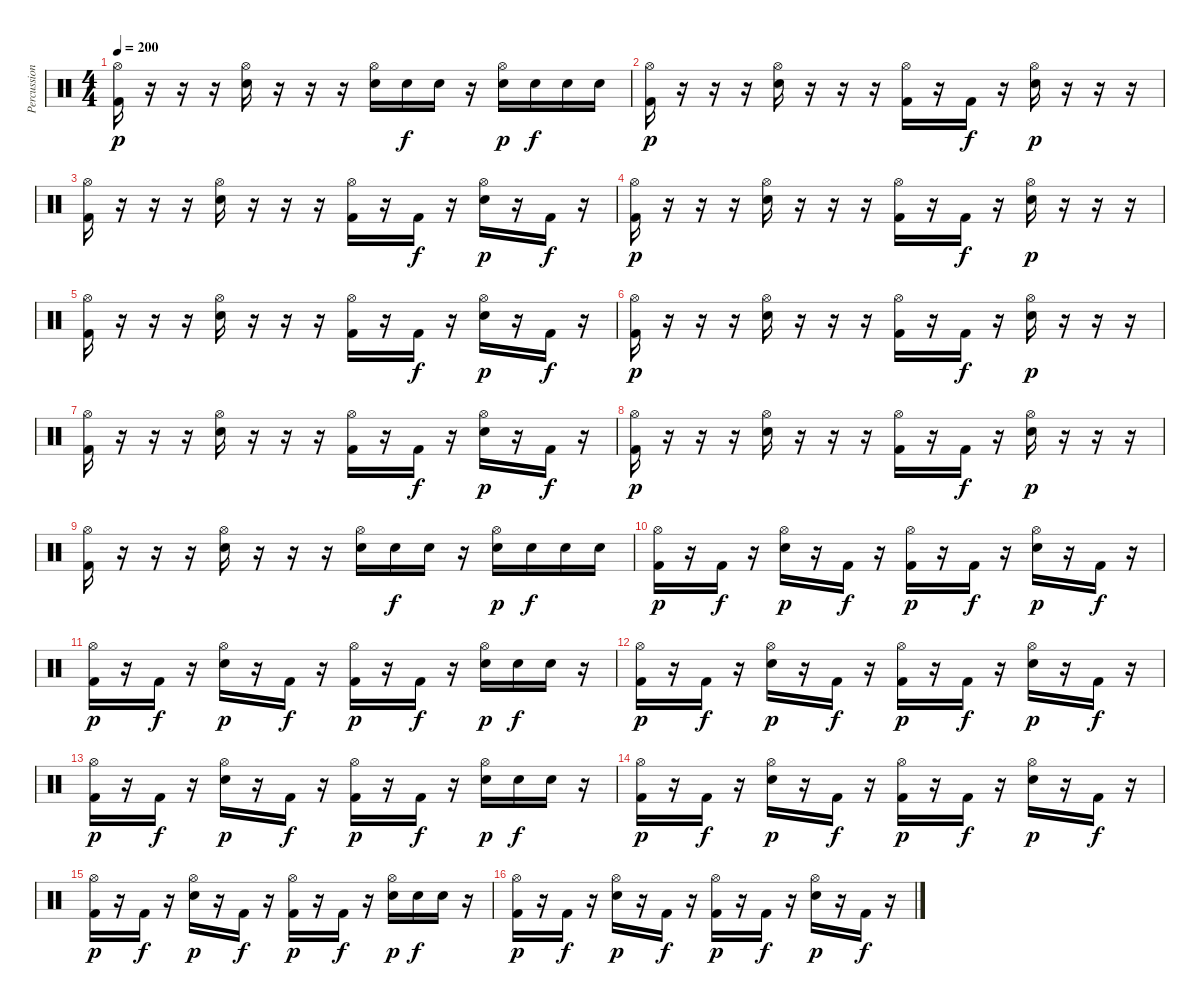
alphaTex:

\track ("Percussion" "Percussion") {instrument percussion}
\staff {score}
\articulation defaults
\ts (4 4)
\tempo 200
\clef neutral
\ks c
("Kick (hit) 2" "Hi-Hat (open)").16{dy p} r.16 r.16 r.16 ("Electric Snare (hit)" "Hi-Hat (open)").16 r.16 r.16 r.16 ("Electric Snare (hit)" "Hi-Hat (open)").16 "Electric Snare (hit)".16{dy f} "Electric Snare (hit)".16 r.16 ("Electric Snare (hit)" "Hi-Hat (open)").16{dy p} "Electric Snare (hit)".16{dy f} "Electric Snare (hit)".16 "Electric Snare (hit)".16 |
("Kick (hit) 2" "Hi-Hat (open)").16{dy p} r.16 r.16 r.16 ("Electric Snare (hit)" "Hi-Hat (open)").16 r.16 r.16 r.16 ("Kick (hit) 2" "Hi-Hat (open)").16 r.16 "Kick (hit) 2".16{dy f} r.16 ("Electric Snare (hit)" "Hi-Hat (open)").16{dy p} r.16 r.16 r.16 |
("Kick (hit) 2" "Hi-Hat (open)").16 r.16 r.16 r.16 ("Electric Snare (hit)" "Hi-Hat (open)").16 r.16 r.16 r.16 ("Kick (hit) 2" "Hi-Hat (open)").16 r.16 "Kick (hit) 2".16{dy f} r.16 ("Electric Snare (hit)" "Hi-Hat (open)").16{dy p} r.16 "Kick (hit) 2".16{dy f} r.16 |
("Kick (hit) 2" "Hi-Hat (open)").16{dy p} r.16 r.16 r.16 ("Electric Snare (hit)" "Hi-Hat (open)").16 r.16 r.16 r.16 ("Kick (hit) 2" "Hi-Hat (open)").16 r.16 "Kick (hit) 2".16{dy f} r.16 ("Electric Snare (hit)" "Hi-Hat (open)").16{dy p} r.16 r.16 r.16 |
("Kick (hit) 2" "Hi-Hat (open)").16 r.16 r.16 r.16 ("Electric Snare (hit)" "Hi-Hat (open)").16 r.16 r.16 r.16 ("Kick (hit) 2" "Hi-Hat (open)").16 r.16 "Kick (hit) 2".16{dy f} r.16 ("Electric Snare (hit)" "Hi-Hat (open)").16{dy p} r.16 "Kick (hit) 2".16{dy f} r.16 |
("Kick (hit) 2" "Hi-Hat (open)").16{dy p} r.16 r.16 r.16 ("Electric Snare (hit)" "Hi-Hat (open)").16 r.16 r.16 r.16 ("Kick (hit) 2" "Hi-Hat (open)").16 r.16 "Kick (hit) 2".16{dy f} r.16 ("Electric Snare (hit)" "Hi-Hat (open)").16{dy p} r.16 r.16 r.16 |
("Kick (hit) 2" "Hi-Hat (open)").16 r.16 r.16 r.16 ("Electric Snare (hit)" "Hi-Hat (open)").16 r.16 r.16 r.16 ("Kick (hit) 2" "Hi-Hat (open)").16 r.16 "Kick (hit) 2".16{dy f} r.16 ("Electric Snare (hit)" "Hi-Hat (open)").16{dy p} r.16 "Kick (hit) 2".16{dy f} r.16 |
("Kick (hit) 2" "Hi-Hat (open)").16{dy p} r.16 r.16 r.16 ("Electric Snare (hit)" "Hi-Hat (open)").16 r.16 r.16 r.16 ("Kick (hit) 2" "Hi-Hat (open)").16 r.16 "Kick (hit) 2".16{dy f} r.16 ("Electric Snare (hit)" "Hi-Hat (open)").16{dy p} r.16 r.16 r.16 |
("Kick (hit) 2" "Hi-Hat (open)").16 r.16 r.16 r.16 ("Electric Snare (hit)" "Hi-Hat (open)").16 r.16 r.16 r.16 ("Electric Snare (hit)" "Hi-Hat (open)").16 "Electric Snare (hit)".16{dy f} "Electric Snare (hit)".16 r.16 ("Electric Snare (hit)" "Hi-Hat (open)").16{dy p} "Electric Snare (hit)".16{dy f} "Electric Snare (hit)".16 "Electric Snare (hit)".16 |
("Kick (hit) 2" "Hi-Hat (open)").16{dy p} r.16 "Kick (hit) 2".16{dy f} r.16 ("Electric Snare (hit)" "Hi-Hat (open)").16{dy p} r.16 "Kick (hit) 2".16{dy f} r.16 ("Kick (hit) 2" "Hi-Hat (open)").16{dy p} r.16 "Kick (hit) 2".16{dy f} r.16 ("Electric Snare (hit)" "Hi-Hat (open)").16{dy p} r.16 "Kick (hit) 2".16{dy f} r.16 |
("Kick (hit) 2" "Hi-Hat (open)").16{dy p} r.16 "Kick (hit) 2".16{dy f} r.16 ("Electric Snare (hit)" "Hi-Hat (open)").16{dy p} r.16 "Kick (hit) 2".16{dy f} r.16 ("Kick (hit) 2" "Hi-Hat (open)").16{dy p} r.16 "Kick (hit) 2".16{dy f} r.16 ("Electric Snare (hit)" "Hi-Hat (open)").16{dy p} "Electric Snare (hit)".16{dy f} "Electric Snare (hit)".16 r.16 |
("Kick (hit) 2" "Hi-Hat (open)").16{dy p} r.16 "Kick (hit) 2".16{dy f} r.16 ("Electric Snare (hit)" "Hi-Hat (open)").16{dy p} r.16 "Kick (hit) 2".16{dy f} r.16 ("Kick (hit) 2" "Hi-Hat (open)").16{dy p} r.16 "Kick (hit) 2".16{dy f} r.16 ("Electric Snare (hit)" "Hi-Hat (open)").16{dy p} r.16 "Kick (hit) 2".16{dy f} r.16 |
("Kick (hit) 2" "Hi-Hat (open)").16{dy p} r.16 "Kick (hit) 2".16{dy f} r.16 ("Electric Snare (hit)" "Hi-Hat (open)").16{dy p} r.16 "Kick (hit) 2".16{dy f} r.16 ("Kick (hit) 2" "Hi-Hat (open)").16{dy p} r.16 "Kick (hit) 2".16{dy f} r.16 ("Electric Snare (hit)" "Hi-Hat (open)").16{dy p} "Electric Snare (hit)".16{dy f} "Electric Snare (hit)".16 r.16 |
("Kick (hit) 2" "Hi-Hat (open)").16{dy p} r.16 "Kick (hit) 2".16{dy f} r.16 ("Electric Snare (hit)" "Hi-Hat (open)").16{dy p} r.16 "Kick (hit) 2".16{dy f} r.16 ("Kick (hit) 2" "Hi-Hat (open)").16{dy p} r.16 "Kick (hit) 2".16{dy f} r.16 ("Electric Snare (hit)" "Hi-Hat (open)").16{dy p} r.16 "Kick (hit) 2".16{dy f} r.16 |
("Kick (hit) 2" "Hi-Hat (open)").16{dy p} r.16 "Kick (hit) 2".16{dy f} r.16 ("Electric Snare (hit)" "Hi-Hat (open)").16{dy p} r.16 "Kick (hit) 2".16{dy f} r.16 ("Kick (hit) 2" "Hi-Hat (open)").16{dy p} r.16 "Kick (hit) 2".16{dy f} r.16 ("Electric Snare (hit)" "Hi-Hat (open)").16{dy p} "Electric Snare (hit)".16{dy f} "Electric Snare (hit)".16 r.16 |
("Kick (hit) 2" "Hi-Hat (open)").16{dy p} r.16 "Kick (hit) 2".16{dy f} r.16 ("Electric Snare (hit)" "Hi-Hat (open)").16{dy p} r.16 "Kick (hit) 2".16{dy f} r.16 ("Kick (hit) 2" "Hi-Hat (open)").16{dy p} r.16 "Kick (hit) 2".16{dy f} r.16 ("Electric Snare (hit)" "Hi-Hat (open)").16{dy p} r.16 "Kick (hit) 2".16{dy f} r.16
